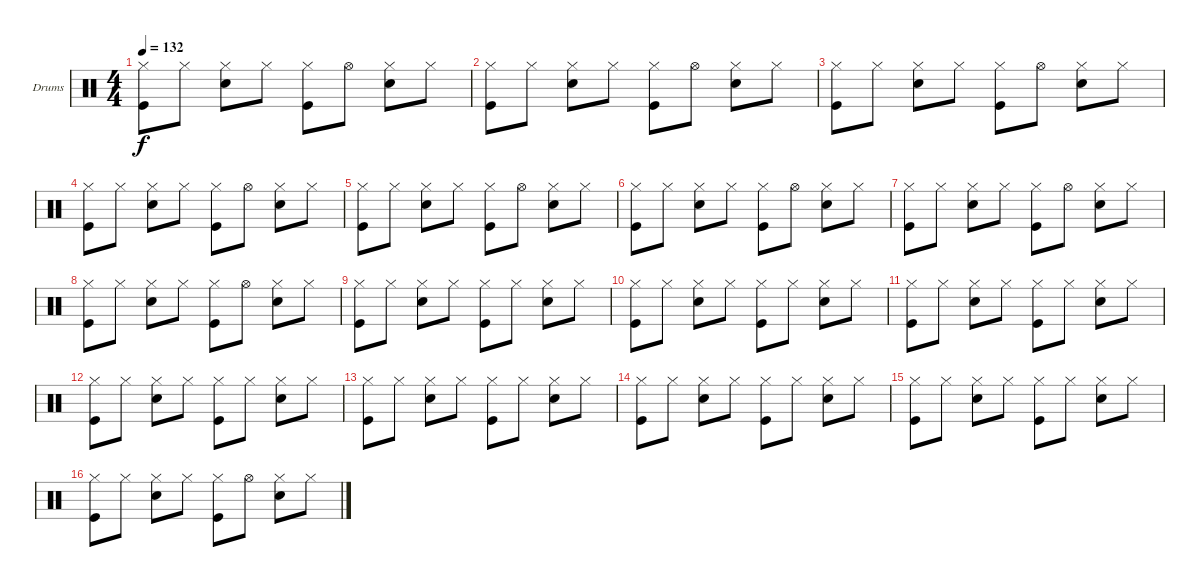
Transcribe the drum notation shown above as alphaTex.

\defaultSystemsLayout 4
\bracketExtendMode groupsimilarinstruments
\firstSystemTrackNameOrientation horizontal
\otherSystemsTrackNameOrientation horizontal
\track ("Fab Moretti" "Drums") {instrument percussion}
\staff {score}
\articulation defaults
\ts (4 4)
\tempo 132
\clef neutral
\ks c
("Hi-Hat (closed)" "Kick (hit)").8{dy f} "Hi-Hat (closed)".8 ("Hi-Hat (closed)" "Snare (hit) 2").8 "Hi-Hat (closed)".8 ("Hi-Hat (closed)" "Kick (hit)").8 "Hi-Hat (open)".8 ("Hi-Hat (closed)" "Snare (hit) 2").8 "Hi-Hat (closed)".8 |
("Hi-Hat (closed)" "Kick (hit)").8 "Hi-Hat (closed)".8 ("Hi-Hat (closed)" "Snare (hit) 2").8 "Hi-Hat (closed)".8 ("Hi-Hat (closed)" "Kick (hit)").8 "Hi-Hat (open)".8 ("Hi-Hat (closed)" "Snare (hit) 2").8 "Hi-Hat (closed)".8 |
("Hi-Hat (closed)" "Kick (hit)").8 "Hi-Hat (closed)".8 ("Hi-Hat (closed)" "Snare (hit) 2").8 "Hi-Hat (closed)".8 ("Hi-Hat (closed)" "Kick (hit)").8 "Hi-Hat (open)".8 ("Hi-Hat (closed)" "Snare (hit) 2").8 "Hi-Hat (closed)".8 |
("Hi-Hat (closed)" "Kick (hit)").8 "Hi-Hat (closed)".8 ("Hi-Hat (closed)" "Snare (hit) 2").8 "Hi-Hat (closed)".8 ("Hi-Hat (closed)" "Kick (hit)").8 "Hi-Hat (open)".8 ("Hi-Hat (closed)" "Snare (hit) 2").8 "Hi-Hat (closed)".8 |
("Hi-Hat (closed)" "Kick (hit)").8 "Hi-Hat (closed)".8 ("Hi-Hat (closed)" "Snare (hit) 2").8 "Hi-Hat (closed)".8 ("Hi-Hat (closed)" "Kick (hit)").8 "Hi-Hat (open)".8 ("Hi-Hat (closed)" "Snare (hit) 2").8 "Hi-Hat (closed)".8 |
("Hi-Hat (closed)" "Kick (hit)").8 "Hi-Hat (closed)".8 ("Hi-Hat (closed)" "Snare (hit) 2").8 "Hi-Hat (closed)".8 ("Hi-Hat (closed)" "Kick (hit)").8 "Hi-Hat (open)".8 ("Hi-Hat (closed)" "Snare (hit) 2").8 "Hi-Hat (closed)".8 |
("Hi-Hat (closed)" "Kick (hit)").8 "Hi-Hat (closed)".8 ("Hi-Hat (closed)" "Snare (hit) 2").8 "Hi-Hat (closed)".8 ("Hi-Hat (closed)" "Kick (hit)").8 "Hi-Hat (open)".8 ("Hi-Hat (closed)" "Snare (hit) 2").8 "Hi-Hat (closed)".8 |
("Hi-Hat (closed)" "Kick (hit)").8 "Hi-Hat (closed)".8 ("Hi-Hat (closed)" "Snare (hit) 2").8 "Hi-Hat (closed)".8 ("Hi-Hat (closed)" "Kick (hit)").8 "Hi-Hat (open)".8 ("Hi-Hat (closed)" "Snare (hit) 2").8 "Hi-Hat (closed)".8 |
("Hi-Hat (closed)" "Kick (hit)").8 "Hi-Hat (closed)".8 ("Hi-Hat (closed)" "Snare (hit) 2").8 "Hi-Hat (closed)".8 ("Hi-Hat (closed)" "Kick (hit)").8 "Hi-Hat (closed)".8 ("Hi-Hat (closed)" "Snare (hit) 2").8 "Hi-Hat (closed)".8 |
("Hi-Hat (closed)" "Kick (hit)").8 "Hi-Hat (closed)".8 ("Hi-Hat (closed)" "Snare (hit) 2").8 "Hi-Hat (closed)".8 ("Hi-Hat (closed)" "Kick (hit)").8 "Hi-Hat (closed)".8 ("Hi-Hat (closed)" "Snare (hit) 2").8 "Hi-Hat (closed)".8 |
("Hi-Hat (closed)" "Kick (hit)").8 "Hi-Hat (closed)".8 ("Hi-Hat (closed)" "Snare (hit) 2").8 "Hi-Hat (closed)".8 ("Hi-Hat (closed)" "Kick (hit)").8 "Hi-Hat (closed)".8 ("Hi-Hat (closed)" "Snare (hit) 2").8 "Hi-Hat (closed)".8 |
("Hi-Hat (closed)" "Kick (hit)").8 "Hi-Hat (closed)".8 ("Hi-Hat (closed)" "Snare (hit) 2").8 "Hi-Hat (closed)".8 ("Hi-Hat (closed)" "Kick (hit)").8 "Hi-Hat (closed)".8 ("Hi-Hat (closed)" "Snare (hit) 2").8 "Hi-Hat (closed)".8 |
("Hi-Hat (closed)" "Kick (hit)").8 "Hi-Hat (closed)".8 ("Hi-Hat (closed)" "Snare (hit) 2").8 "Hi-Hat (closed)".8 ("Hi-Hat (closed)" "Kick (hit)").8 "Hi-Hat (closed)".8 ("Hi-Hat (closed)" "Snare (hit) 2").8 "Hi-Hat (closed)".8 |
("Hi-Hat (closed)" "Kick (hit)").8 "Hi-Hat (closed)".8 ("Hi-Hat (closed)" "Snare (hit) 2").8 "Hi-Hat (closed)".8 ("Hi-Hat (closed)" "Kick (hit)").8 "Hi-Hat (closed)".8 ("Hi-Hat (closed)" "Snare (hit) 2").8 "Hi-Hat (closed)".8 |
("Hi-Hat (closed)" "Kick (hit)").8 "Hi-Hat (closed)".8 ("Hi-Hat (closed)" "Snare (hit) 2").8 "Hi-Hat (closed)".8 ("Hi-Hat (closed)" "Kick (hit)").8 "Hi-Hat (closed)".8 ("Hi-Hat (closed)" "Snare (hit) 2").8 "Hi-Hat (closed)".8 |
("Hi-Hat (closed)" "Kick (hit)").8 "Hi-Hat (closed)".8 ("Hi-Hat (closed)" "Snare (hit) 2").8 "Hi-Hat (closed)".8 ("Hi-Hat (closed)" "Kick (hit)").8 "Hi-Hat (open)".8 ("Hi-Hat (closed)" "Snare (hit) 2").8 "Hi-Hat (closed)".8
